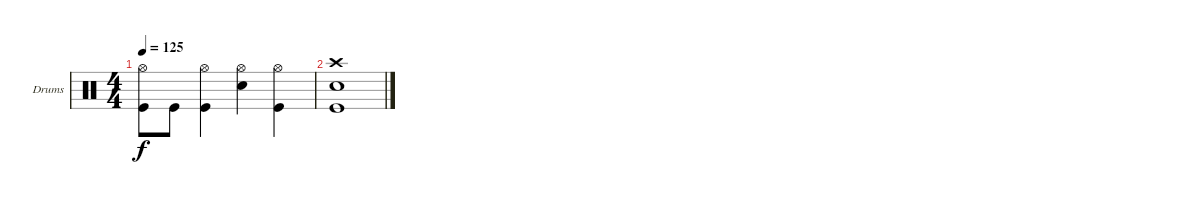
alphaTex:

\defaultSystemsLayout 4
\bracketExtendMode groupsimilarinstruments
\firstSystemTrackNameOrientation horizontal
\otherSystemsTrackNameOrientation horizontal
\track ("Drumkit" "Drums") {instrument percussion}
\staff {score}
\articulation defaults
\ts (4 4)
\tempo 125
\clef neutral
\ks c
("Kick (hit)" "Hi-Hat (open)").8{dy f} "Kick (hit)".8 ("Hi-Hat (open)" "Kick (hit)").4 ("Hi-Hat (open)" "Snare (hit) 2").4 ("Hi-Hat (open)" "Kick (hit)").4 |
("Kick (hit)" "Crash high (hit)" "Snare (hit) 2").1
